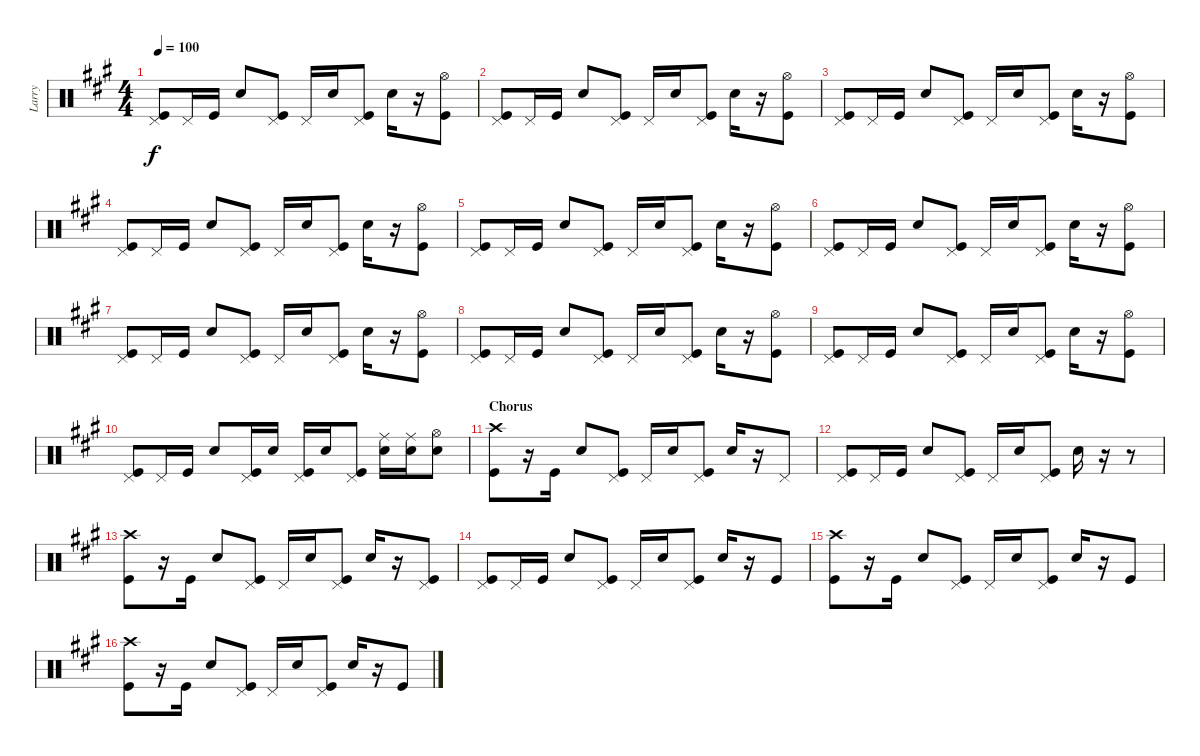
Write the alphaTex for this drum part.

\track ("Larry" "Larry") {instrument percussion}
\staff {score}
\articulation defaults
\ts (4 4)
\tempo 100
\clef neutral
\ks f#minor
("Pedal Hi-Hat (hit)" "Kick (hit)").8{dy f} "Pedal Hi-Hat (hit)".16 "Kick (hit)".16 "Snare (hit) 2".8 ("Pedal Hi-Hat (hit)" "Kick (hit)").8 "Pedal Hi-Hat (hit)".16 "Snare (hit) 2".16 ("Pedal Hi-Hat (hit)" "Kick (hit)").8 "Snare (hit) 2".16 r.16 ("Hi-Hat (open)" "Kick (hit)").8 |
("Pedal Hi-Hat (hit)" "Kick (hit)").8 "Pedal Hi-Hat (hit)".16 "Kick (hit)".16 "Snare (hit) 2".8 ("Pedal Hi-Hat (hit)" "Kick (hit)").8 "Pedal Hi-Hat (hit)".16 "Snare (hit) 2".16 ("Pedal Hi-Hat (hit)" "Kick (hit)").8 "Snare (hit) 2".16 r.16 ("Hi-Hat (open)" "Kick (hit)").8 |
("Pedal Hi-Hat (hit)" "Kick (hit)").8 "Pedal Hi-Hat (hit)".16 "Kick (hit)".16 "Snare (hit) 2".8 ("Pedal Hi-Hat (hit)" "Kick (hit)").8 "Pedal Hi-Hat (hit)".16 "Snare (hit) 2".16 ("Pedal Hi-Hat (hit)" "Kick (hit)").8 "Snare (hit) 2".16 r.16 ("Hi-Hat (open)" "Kick (hit)").8 |
("Pedal Hi-Hat (hit)" "Kick (hit)").8 "Pedal Hi-Hat (hit)".16 "Kick (hit)".16 "Snare (hit) 2".8 ("Pedal Hi-Hat (hit)" "Kick (hit)").8 "Pedal Hi-Hat (hit)".16 "Snare (hit) 2".16 ("Pedal Hi-Hat (hit)" "Kick (hit)").8 "Snare (hit) 2".16 r.16 ("Hi-Hat (open)" "Kick (hit)").8 |
("Pedal Hi-Hat (hit)" "Kick (hit)").8 "Pedal Hi-Hat (hit)".16 "Kick (hit)".16 "Snare (hit) 2".8 ("Pedal Hi-Hat (hit)" "Kick (hit)").8 "Pedal Hi-Hat (hit)".16 "Snare (hit) 2".16 ("Pedal Hi-Hat (hit)" "Kick (hit)").8 "Snare (hit) 2".16 r.16 ("Hi-Hat (open)" "Kick (hit)").8 |
("Pedal Hi-Hat (hit)" "Kick (hit)").8 "Pedal Hi-Hat (hit)".16 "Kick (hit)".16 "Snare (hit) 2".8 ("Pedal Hi-Hat (hit)" "Kick (hit)").8 "Pedal Hi-Hat (hit)".16 "Snare (hit) 2".16 ("Pedal Hi-Hat (hit)" "Kick (hit)").8 "Snare (hit) 2".16 r.16 ("Hi-Hat (open)" "Kick (hit)").8 |
("Pedal Hi-Hat (hit)" "Kick (hit)").8 "Pedal Hi-Hat (hit)".16 "Kick (hit)".16 "Snare (hit) 2".8 ("Pedal Hi-Hat (hit)" "Kick (hit)").8 "Pedal Hi-Hat (hit)".16 "Snare (hit) 2".16 ("Pedal Hi-Hat (hit)" "Kick (hit)").8 "Snare (hit) 2".16 r.16 ("Hi-Hat (open)" "Kick (hit)").8 |
("Pedal Hi-Hat (hit)" "Kick (hit)").8 "Pedal Hi-Hat (hit)".16 "Kick (hit)".16 "Snare (hit) 2".8 ("Pedal Hi-Hat (hit)" "Kick (hit)").8 "Pedal Hi-Hat (hit)".16 "Snare (hit) 2".16 ("Pedal Hi-Hat (hit)" "Kick (hit)").8 "Snare (hit) 2".16 r.16 ("Hi-Hat (open)" "Kick (hit)").8 |
("Pedal Hi-Hat (hit)" "Kick (hit)").8 "Pedal Hi-Hat (hit)".16 "Kick (hit)".16 "Snare (hit) 2".8 ("Pedal Hi-Hat (hit)" "Kick (hit)").8 "Pedal Hi-Hat (hit)".16 "Snare (hit) 2".16 ("Pedal Hi-Hat (hit)" "Kick (hit)").8 "Snare (hit) 2".16 r.16 ("Hi-Hat (open)" "Kick (hit)").8 |
("Pedal Hi-Hat (hit)" "Kick (hit)").8 "Pedal Hi-Hat (hit)".16 "Kick (hit)".16 "Snare (hit) 2".8 ("Pedal Hi-Hat (hit)" "Kick (hit)").16 "Snare (hit) 2".16 ("Pedal Hi-Hat (hit)" "Kick (hit)").16 "Snare (hit) 2".16 ("Pedal Hi-Hat (hit)" "Kick (hit)").8 ("Ride (middle)" "Snare (hit) 2").16 ("Ride (middle)" "Snare (hit) 2").16 ("Hi-Hat (open)" "Snare (hit) 2").8 |
\section ("" "Chorus")
("Crash high (hit)" "Kick (hit)").8 r.16 "Kick (hit)".16 "Snare (hit) 2".8 ("Pedal Hi-Hat (hit)" "Kick (hit)").8 "Pedal Hi-Hat (hit)".16 "Snare (hit) 2".16 ("Pedal Hi-Hat (hit)" "Kick (hit)").8 "Snare (hit) 2".16 r.16 "Pedal Hi-Hat (hit)".8 |
("Pedal Hi-Hat (hit)" "Kick (hit)").8 "Pedal Hi-Hat (hit)".16 "Kick (hit)".16 "Snare (hit) 2".8 ("Pedal Hi-Hat (hit)" "Kick (hit)").8 "Pedal Hi-Hat (hit)".16 "Snare (hit) 2".16 ("Pedal Hi-Hat (hit)" "Kick (hit)").8 "Snare (hit) 2".16 r.16 r.8 |
("Crash high (hit)" "Kick (hit)").8 r.16 "Kick (hit)".16 "Snare (hit) 2".8 ("Pedal Hi-Hat (hit)" "Kick (hit)").8 "Pedal Hi-Hat (hit)".16 "Snare (hit) 2".16 ("Pedal Hi-Hat (hit)" "Kick (hit)").8 "Snare (hit) 2".16 r.16 ("Pedal Hi-Hat (hit)" "Kick (hit)").8 |
("Pedal Hi-Hat (hit)" "Kick (hit)").8 "Pedal Hi-Hat (hit)".16 "Kick (hit)".16 "Snare (hit) 2".8 ("Pedal Hi-Hat (hit)" "Kick (hit)").8 "Pedal Hi-Hat (hit)".16 "Snare (hit) 2".16 ("Pedal Hi-Hat (hit)" "Kick (hit)").8 "Snare (hit) 2".16 r.16 "Kick (hit)".8 |
("Crash high (hit)" "Kick (hit)").8 r.16 "Kick (hit)".16 "Snare (hit) 2".8 ("Pedal Hi-Hat (hit)" "Kick (hit)").8 "Pedal Hi-Hat (hit)".16 "Snare (hit) 2".16 ("Pedal Hi-Hat (hit)" "Kick (hit)").8 "Snare (hit) 2".16 r.16 "Kick (hit)".8 |
("Crash high (hit)" "Kick (hit)").8 r.16 "Kick (hit)".16 "Snare (hit) 2".8 ("Pedal Hi-Hat (hit)" "Kick (hit)").8 "Pedal Hi-Hat (hit)".16 "Snare (hit) 2".16 ("Pedal Hi-Hat (hit)" "Kick (hit)").8 "Snare (hit) 2".16 r.16 "Kick (hit)".8
